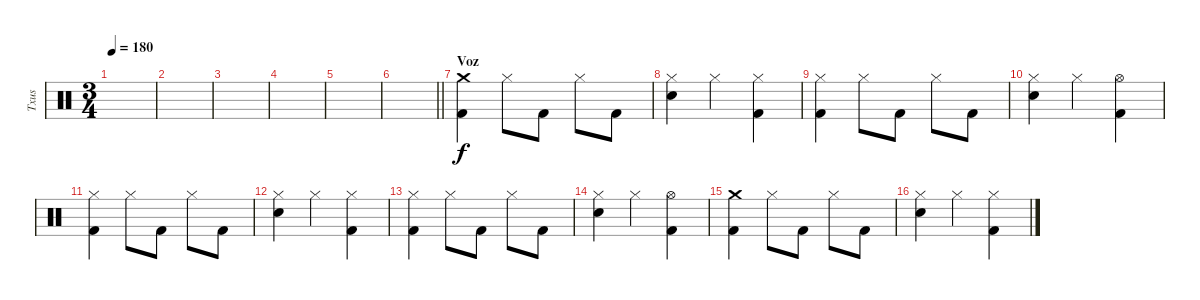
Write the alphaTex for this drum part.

\track ("Txus" "Txus") {instrument percussion}
\staff {score}
\articulation defaults
\ts (3 4)
\tempo 180
\clef neutral
\ks c
|
|
|
|
|
\barLineRight lightlight
|
\section ("" "Voz")
("Crash medium (hit)" "Kick (hit) 2").4 "Hi-Hat (closed)".8 "Kick (hit) 2".8 "Hi-Hat (closed)".8 "Kick (hit) 2".8 |
("Hi-Hat (closed)" "Snare (hit) 2").4 "Hi-Hat (closed)".4 ("Hi-Hat (closed)" "Kick (hit) 2").4 |
("Hi-Hat (closed)" "Kick (hit) 2").4 "Hi-Hat (closed)".8 "Kick (hit) 2".8 "Hi-Hat (closed)".8 "Kick (hit) 2".8 |
("Hi-Hat (closed)" "Snare (hit) 2").4 "Hi-Hat (closed)".4 ("Hi-Hat (open)" "Kick (hit) 2").4 |
("Hi-Hat (closed)" "Kick (hit) 2").4 "Hi-Hat (closed)".8 "Kick (hit) 2".8 "Hi-Hat (closed)".8 "Kick (hit) 2".8 |
("Hi-Hat (closed)" "Snare (hit) 2").4 "Hi-Hat (closed)".4 ("Hi-Hat (closed)" "Kick (hit) 2").4 |
("Hi-Hat (closed)" "Kick (hit) 2").4 "Hi-Hat (closed)".8 "Kick (hit) 2".8 "Hi-Hat (closed)".8 "Kick (hit) 2".8 |
("Hi-Hat (closed)" "Snare (hit) 2").4 "Hi-Hat (closed)".4 ("Hi-Hat (open)" "Kick (hit) 2").4 |
("Crash medium (hit)" "Kick (hit) 2").4 "Hi-Hat (closed)".8 "Kick (hit) 2".8 "Hi-Hat (closed)".8 "Kick (hit) 2".8 |
("Hi-Hat (closed)" "Snare (hit) 2").4 "Hi-Hat (closed)".4 ("Hi-Hat (closed)" "Kick (hit) 2").4
